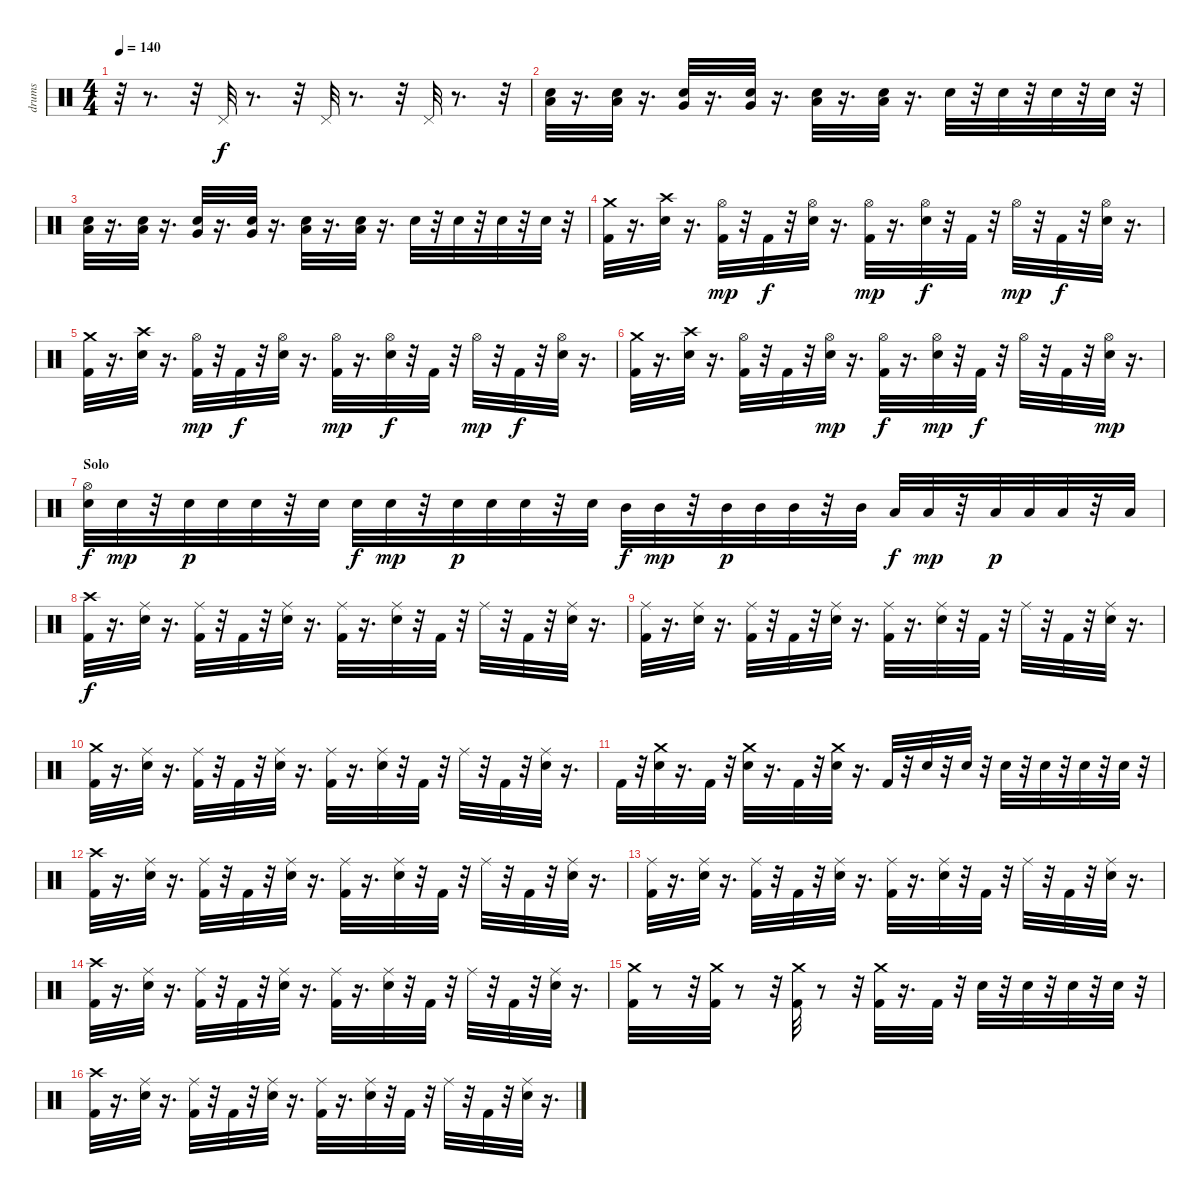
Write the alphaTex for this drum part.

\track ("drums" "drums") {instrument percussion}
\staff {score}
\articulation defaults
\ts (4 4)
\tempo 140
\clef neutral
\ks c
r.32{dy f} r.8{d} r.32 "Pedal Hi-Hat (hit)".32 r.8{d} r.32 "Pedal Hi-Hat (hit)".32 r.8{d} r.32 "Pedal Hi-Hat (hit)".32 r.8{d} r.32 |
("Low Tom (hit)" "Electric Snare (hit)").32 r.16{d} ("Electric Snare (hit)" "Low Tom (hit)").32 r.16{d} ("Electric Snare (hit)" "Very Low Tom (hit)").32 r.16{d} ("Electric Snare (hit)" "Very Low Tom (hit)").32 r.16{d} ("Electric Snare (hit)" "Low Floor Tom (hit)").32 r.16{d} ("Low Floor Tom (hit)" "Electric Snare (hit)").32 r.16{d} "Electric Snare (hit)".32 r.32 "Electric Snare (hit)".32 r.32 "Electric Snare (hit)".32 r.32 "Electric Snare (hit)".32 r.32 |
("Low Tom (hit)" "Electric Snare (hit)").32 r.16{d} ("Electric Snare (hit)" "Low Tom (hit)").32 r.16{d} ("Electric Snare (hit)" "Very Low Tom (hit)").32 r.16{d} ("Electric Snare (hit)" "Very Low Tom (hit)").32 r.16{d} ("Electric Snare (hit)" "Low Floor Tom (hit)").32 r.16{d} ("Low Floor Tom (hit)" "Electric Snare (hit)").32 r.16{d} "Electric Snare (hit)".32 r.32 "Electric Snare (hit)".32 r.32 "Electric Snare (hit)".32 r.32 "Electric Snare (hit)".32 r.32 |
("Crash medium (hit)" "Kick (hit) 2").32 r.16{d} ("Crash high (hit)" "Electric Snare (hit)").32 r.16{d} ("Hi-Hat (open)" "Kick (hit) 2").32{dy mp} r.32 "Kick (hit) 2".32{dy f} r.32 ("Hi-Hat (open)" "Electric Snare (hit)").32 r.16{d} ("Hi-Hat (open)" "Kick (hit) 2").32{dy mp} r.16{d} ("Hi-Hat (open)" "Electric Snare (hit)").32{dy f} r.32 "Kick (hit) 2".32 r.32 "Hi-Hat (open)".32{dy mp} r.32 "Kick (hit) 2".32{dy f} r.32 ("Hi-Hat (open)" "Electric Snare (hit)").32 r.16{d} |
("Crash medium (hit)" "Kick (hit) 2").32 r.16{d} ("Electric Snare (hit)" "Crash high (hit)").32 r.16{d} ("Hi-Hat (open)" "Kick (hit) 2").32{dy mp} r.32 "Kick (hit) 2".32{dy f} r.32 ("Hi-Hat (open)" "Electric Snare (hit)").32 r.16{d} ("Hi-Hat (open)" "Kick (hit) 2").32{dy mp} r.16{d} ("Hi-Hat (open)" "Electric Snare (hit)").32{dy f} r.32 "Kick (hit) 2".32 r.32 "Hi-Hat (open)".32{dy mp} r.32 "Kick (hit) 2".32{dy f} r.32 ("Hi-Hat (open)" "Electric Snare (hit)").32 r.16{d} |
("Kick (hit) 2" "Crash medium (hit)").32 r.16{d} ("Electric Snare (hit)" "Crash high (hit)").32 r.16{d} ("Hi-Hat (open)" "Kick (hit) 2").32 r.32 "Kick (hit) 2".32 r.32 ("Electric Snare (hit)" "Hi-Hat (open)").32{dy mp} r.16{d} ("Hi-Hat (open)" "Kick (hit) 2").32{dy f} r.16{d} ("Electric Snare (hit)" "Hi-Hat (open)").32{dy mp} r.32 "Kick (hit) 2".32{dy f} r.32 "Hi-Hat (open)".32 r.32 "Kick (hit) 2".32 r.32 ("Electric Snare (hit)" "Hi-Hat (open)").32{dy mp} r.16{d} |
\section ("" "Solo")
("Hi-Hat (open)" "Electric Snare (hit)").32{dy f} "Electric Snare (hit)".32{dy mp} r.32 "Electric Snare (hit)".32{dy p} "Electric Snare (hit)".32 "Electric Snare (hit)".32 r.32 "Electric Snare (hit)".32 "Electric Snare (hit)".32{dy f} "Electric Snare (hit)".32{dy mp} r.32 "Electric Snare (hit)".32{dy p} "Electric Snare (hit)".32 "Electric Snare (hit)".32 r.32 "Electric Snare (hit)".32 "Mid Tom (hit)".32{dy f} "Mid Tom (hit)".32{dy mp} r.32 "Mid Tom (hit)".32{dy p} "Mid Tom (hit)".32 "Mid Tom (hit)".32 r.32 "Mid Tom (hit)".32 "Low Tom (hit)".32{dy f} "Low Tom (hit)".32{dy mp} r.32 "Low Tom (hit)".32{dy p} "Low Tom (hit)".32 "Low Tom (hit)".32 r.32 "Low Tom (hit)".32 |
("Crash high (hit)" "Kick (hit) 2").32{dy f} r.16{d} ("Ride (middle)" "Electric Snare (hit)").32 r.16{d} ("Ride (middle)" "Kick (hit) 2").32 r.32 "Kick (hit) 2".32 r.32 ("Ride (middle)" "Electric Snare (hit)").32 r.16{d} ("Ride (middle)" "Kick (hit) 2").32 r.16{d} ("Ride (middle)" "Electric Snare (hit)").32 r.32 "Kick (hit) 2".32 r.32 "Ride (middle)".32 r.32 "Kick (hit) 2".32 r.32 ("Ride (middle)" "Electric Snare (hit)").32 r.16{d} |
("Ride (middle)" "Kick (hit) 2").32 r.16{d} ("Ride (middle)" "Electric Snare (hit)").32 r.16{d} ("Ride (middle)" "Kick (hit) 2").32 r.32 "Kick (hit) 2".32 r.32 ("Ride (middle)" "Electric Snare (hit)").32 r.16{d} ("Ride (middle)" "Kick (hit) 2").32 r.16{d} ("Ride (middle)" "Electric Snare (hit)").32 r.32 "Kick (hit) 2".32 r.32 "Ride (middle)".32 r.32 "Kick (hit) 2".32 r.32 ("Ride (middle)" "Electric Snare (hit)").32 r.16{d} |
("Crash medium (hit)" "Kick (hit) 2").32 r.16{d} ("Ride (middle)" "Electric Snare (hit)").32 r.16{d} ("Ride (middle)" "Kick (hit) 2").32 r.32 "Kick (hit) 2".32 r.32 ("Ride (middle)" "Electric Snare (hit)").32 r.16{d} ("Ride (middle)" "Kick (hit) 2").32 r.16{d} ("Ride (middle)" "Electric Snare (hit)").32 r.32 "Kick (hit) 2".32 r.32 "Ride (middle)".32 r.32 "Kick (hit) 2".32 r.32 ("Ride (middle)" "Electric Snare (hit)").32 r.16{d} |
"Kick (hit) 2".32 r.32 ("Crash medium (hit)" "Electric Snare (hit)").32 r.16{d} "Kick (hit) 2".32 r.32 ("Crash medium (hit)" "Electric Snare (hit)").32 r.16{d} "Kick (hit) 2".32 r.32 ("Crash medium (hit)" "Electric Snare (hit)").32 r.16{d} "Kick (hit) 2".32 r.32 "Electric Snare (hit)".32 r.32 "Electric Snare (hit)".32 r.32 "Electric Snare (hit)".32 r.32 "Electric Snare (hit)".32 r.32 "Electric Snare (hit)".32 r.32 "Electric Snare (hit)".32 r.32 |
("Crash high (hit)" "Kick (hit) 2").32 r.16{d} ("Ride (middle)" "Electric Snare (hit)").32 r.16{d} ("Ride (middle)" "Kick (hit) 2").32 r.32 "Kick (hit) 2".32 r.32 ("Ride (middle)" "Electric Snare (hit)").32 r.16{d} ("Ride (middle)" "Kick (hit) 2").32 r.16{d} ("Ride (middle)" "Electric Snare (hit)").32 r.32 "Kick (hit) 2".32 r.32 "Ride (middle)".32 r.32 "Kick (hit) 2".32 r.32 ("Ride (middle)" "Electric Snare (hit)").32 r.16{d} |
("Ride (middle)" "Kick (hit) 2").32 r.16{d} ("Ride (middle)" "Electric Snare (hit)").32 r.16{d} ("Ride (middle)" "Kick (hit) 2").32 r.32 "Kick (hit) 2".32 r.32 ("Ride (middle)" "Electric Snare (hit)").32 r.16{d} ("Ride (middle)" "Kick (hit) 2").32 r.16{d} ("Ride (middle)" "Electric Snare (hit)").32 r.32 "Kick (hit) 2".32 r.32 "Ride (middle)".32 r.32 "Kick (hit) 2".32 r.32 ("Ride (middle)" "Electric Snare (hit)").32 r.16{d} |
("Crash high (hit)" "Kick (hit) 2").32 r.16{d} ("Ride (middle)" "Electric Snare (hit)").32 r.16{d} ("Ride (middle)" "Kick (hit) 2").32 r.32 "Kick (hit) 2".32 r.32 ("Ride (middle)" "Electric Snare (hit)").32 r.16{d} ("Ride (middle)" "Kick (hit) 2").32 r.16{d} ("Ride (middle)" "Electric Snare (hit)").32 r.32 "Kick (hit) 2".32 r.32 "Ride (middle)".32 r.32 "Kick (hit) 2".32 r.32 ("Ride (middle)" "Electric Snare (hit)").32 r.16{d} |
("Crash medium (hit)" "Kick (hit) 2").32 r.8 r.32 ("Crash medium (hit)" "Kick (hit) 2").32 r.8 r.32 ("Crash medium (hit)" "Kick (hit) 2").32 r.8 r.32 ("Crash medium (hit)" "Kick (hit) 2").32 r.16{d} "Kick (hit) 2".32 r.32 "Electric Snare (hit)".32 r.32 "Electric Snare (hit)".32 r.32 "Electric Snare (hit)".32 r.32 "Electric Snare (hit)".32 r.32 |
("Crash high (hit)" "Kick (hit) 2").32 r.16{d} ("Ride (middle)" "Electric Snare (hit)").32 r.16{d} ("Ride (middle)" "Kick (hit) 2").32 r.32 "Kick (hit) 2".32 r.32 ("Ride (middle)" "Electric Snare (hit)").32 r.16{d} ("Ride (middle)" "Kick (hit) 2").32 r.16{d} ("Ride (middle)" "Electric Snare (hit)").32 r.32 "Kick (hit) 2".32 r.32 "Ride (middle)".32 r.32 "Kick (hit) 2".32 r.32 ("Ride (middle)" "Electric Snare (hit)").32 r.16{d}
